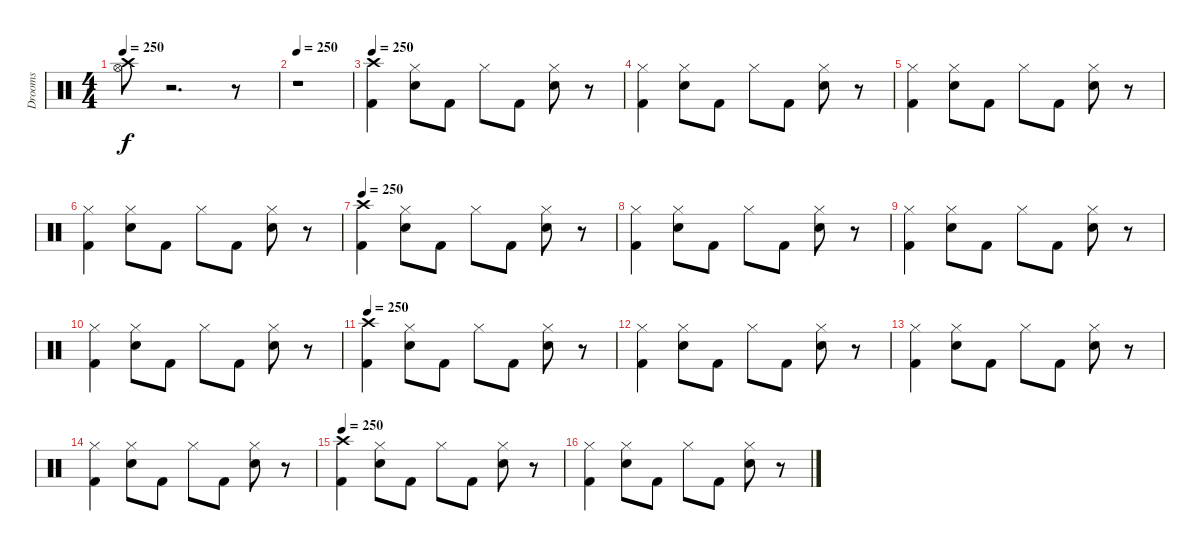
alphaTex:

\track ("Drooms" "Drooms") {instrument percussion}
\staff {score}
\articulation defaults
\ts (4 4)
\tempo 250
\clef neutral
\ks c
("Hi-Hat (open)" "Crash high (hit)").8{dy f} r.2{d} r.8 |
\tempo 250
r.1 |
\tempo 250
("Crash high (hit)" "Kick (hit) 2").4 ("Hi-Hat (closed)" "Snare (hit) 2").8 "Kick (hit) 2".8 "Hi-Hat (closed)".8 "Kick (hit) 2".8 ("Hi-Hat (closed)" "Snare (hit) 2").8 r.8 |
("Hi-Hat (closed)" "Kick (hit) 2").4 ("Hi-Hat (closed)" "Snare (hit) 2").8 "Kick (hit) 2".8 "Hi-Hat (closed)".8 "Kick (hit) 2".8 ("Hi-Hat (closed)" "Snare (hit) 2").8 r.8 |
("Hi-Hat (closed)" "Kick (hit) 2").4 ("Hi-Hat (closed)" "Snare (hit) 2").8 "Kick (hit) 2".8 "Hi-Hat (closed)".8 "Kick (hit) 2".8 ("Hi-Hat (closed)" "Snare (hit) 2").8 r.8 |
("Hi-Hat (closed)" "Kick (hit) 2").4 ("Hi-Hat (closed)" "Snare (hit) 2").8 "Kick (hit) 2".8 "Hi-Hat (closed)".8 "Kick (hit) 2".8 ("Hi-Hat (closed)" "Snare (hit) 2").8 r.8 |
\tempo 250
("Crash high (hit)" "Kick (hit) 2").4 ("Hi-Hat (closed)" "Snare (hit) 2").8 "Kick (hit) 2".8 "Hi-Hat (closed)".8 "Kick (hit) 2".8 ("Hi-Hat (closed)" "Snare (hit) 2").8 r.8 |
("Hi-Hat (closed)" "Kick (hit) 2").4 ("Hi-Hat (closed)" "Snare (hit) 2").8 "Kick (hit) 2".8 "Hi-Hat (closed)".8 "Kick (hit) 2".8 ("Hi-Hat (closed)" "Snare (hit) 2").8 r.8 |
("Hi-Hat (closed)" "Kick (hit) 2").4 ("Hi-Hat (closed)" "Snare (hit) 2").8 "Kick (hit) 2".8 "Hi-Hat (closed)".8 "Kick (hit) 2".8 ("Hi-Hat (closed)" "Snare (hit) 2").8 r.8 |
("Hi-Hat (closed)" "Kick (hit) 2").4 ("Hi-Hat (closed)" "Snare (hit) 2").8 "Kick (hit) 2".8 "Hi-Hat (closed)".8 "Kick (hit) 2".8 ("Hi-Hat (closed)" "Snare (hit) 2").8 r.8 |
\tempo 250
("Crash high (hit)" "Kick (hit) 2").4 ("Hi-Hat (closed)" "Snare (hit) 2").8 "Kick (hit) 2".8 "Hi-Hat (closed)".8 "Kick (hit) 2".8 ("Hi-Hat (closed)" "Snare (hit) 2").8 r.8 |
("Hi-Hat (closed)" "Kick (hit) 2").4 ("Hi-Hat (closed)" "Snare (hit) 2").8 "Kick (hit) 2".8 "Hi-Hat (closed)".8 "Kick (hit) 2".8 ("Hi-Hat (closed)" "Snare (hit) 2").8 r.8 |
("Hi-Hat (closed)" "Kick (hit) 2").4 ("Hi-Hat (closed)" "Snare (hit) 2").8 "Kick (hit) 2".8 "Hi-Hat (closed)".8 "Kick (hit) 2".8 ("Hi-Hat (closed)" "Snare (hit) 2").8 r.8 |
("Hi-Hat (closed)" "Kick (hit) 2").4 ("Hi-Hat (closed)" "Snare (hit) 2").8 "Kick (hit) 2".8 "Hi-Hat (closed)".8 "Kick (hit) 2".8 ("Hi-Hat (closed)" "Snare (hit) 2").8 r.8 |
\tempo 250
("Crash high (hit)" "Kick (hit) 2").4 ("Hi-Hat (closed)" "Snare (hit) 2").8 "Kick (hit) 2".8 "Hi-Hat (closed)".8 "Kick (hit) 2".8 ("Hi-Hat (closed)" "Snare (hit) 2").8 r.8 |
("Hi-Hat (closed)" "Kick (hit) 2").4 ("Hi-Hat (closed)" "Snare (hit) 2").8 "Kick (hit) 2".8 "Hi-Hat (closed)".8 "Kick (hit) 2".8 ("Hi-Hat (closed)" "Snare (hit) 2").8 r.8
